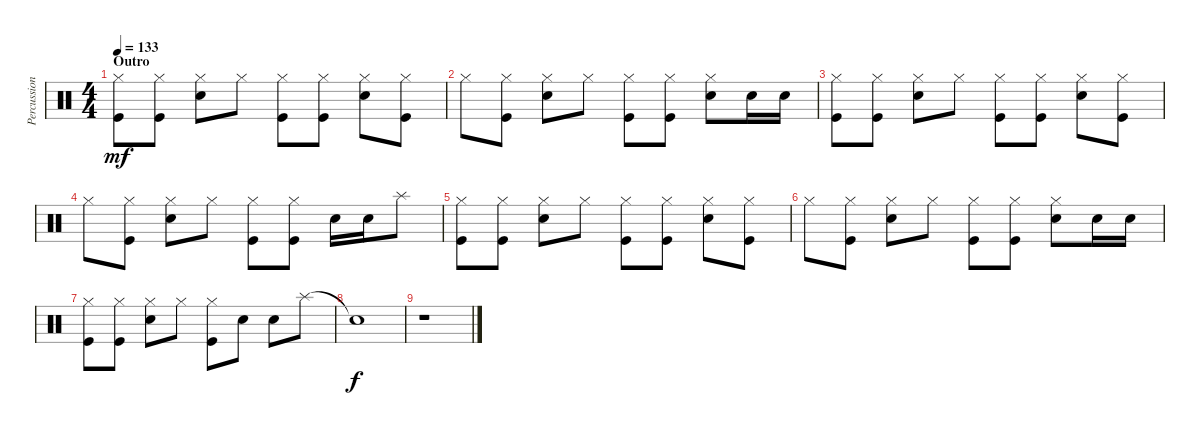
\track ("Percussion" "Percussion") {instrument percussion}
\staff {score}
\articulation defaults
\ts (4 4)
\section ("" "Outro")
\tempo 133
\clef neutral
\ks c
("Hi-Hat (closed)" "Kick (hit)").8{dy mf} ("Hi-Hat (closed)" "Kick (hit)").8 ("Hi-Hat (closed)" "Snare (hit) 2").8 "Hi-Hat (closed)".8 ("Hi-Hat (closed)" "Kick (hit)").8 ("Hi-Hat (closed)" "Kick (hit)").8 ("Hi-Hat (closed)" "Snare (hit) 2").8 ("Hi-Hat (closed)" "Kick (hit)").8 |
"Hi-Hat (closed)".8 ("Hi-Hat (closed)" "Kick (hit)").8 ("Hi-Hat (closed)" "Snare (hit) 2").8 "Hi-Hat (closed)".8 ("Hi-Hat (closed)" "Kick (hit)").8 ("Hi-Hat (closed)" "Kick (hit)").8 ("Hi-Hat (closed)" "Snare (hit) 2").8 "Snare (hit) 2".16 "Snare (hit) 2".16 |
("Hi-Hat (closed)" "Kick (hit)").8 ("Hi-Hat (closed)" "Kick (hit)").8 ("Hi-Hat (closed)" "Snare (hit) 2").8 "Hi-Hat (closed)".8 ("Hi-Hat (closed)" "Kick (hit)").8 ("Hi-Hat (closed)" "Kick (hit)").8 ("Hi-Hat (closed)" "Snare (hit) 2").8 ("Hi-Hat (closed)" "Kick (hit)").8 |
"Hi-Hat (closed)".8 ("Hi-Hat (closed)" "Kick (hit)").8 ("Hi-Hat (closed)" "Snare (hit) 2").8 "Hi-Hat (closed)".8 ("Hi-Hat (closed)" "Kick (hit)").8 ("Hi-Hat (closed)" "Kick (hit)").8 "Snare (hit) 2".16 "Snare (hit) 2".16 "Splash (hit)".8 |
("Hi-Hat (closed)" "Kick (hit)").8 ("Hi-Hat (closed)" "Kick (hit)").8 ("Hi-Hat (closed)" "Snare (hit) 2").8 "Hi-Hat (closed)".8 ("Hi-Hat (closed)" "Kick (hit)").8 ("Hi-Hat (closed)" "Kick (hit)").8 ("Hi-Hat (closed)" "Snare (hit) 2").8 ("Hi-Hat (closed)" "Kick (hit)").8 |
"Hi-Hat (closed)".8 ("Hi-Hat (closed)" "Kick (hit)").8 ("Hi-Hat (closed)" "Snare (hit) 2").8 "Hi-Hat (closed)".8 ("Hi-Hat (closed)" "Kick (hit)").8 ("Hi-Hat (closed)" "Kick (hit)").8 ("Hi-Hat (closed)" "Snare (hit) 2").8 "Snare (hit) 2".16 "Snare (hit) 2".16 |
("Hi-Hat (closed)" "Kick (hit)").8 ("Hi-Hat (closed)" "Kick (hit)").8 ("Hi-Hat (closed)" "Snare (hit) 2").8 "Hi-Hat (closed)".8 ("Hi-Hat (closed)" "Kick (hit)").8 "Snare (hit) 2".8 "Snare (hit) 2".8 "Splash (hit)".8 |
"Snare (hit)"{t}.1{dy f} |
r.1
